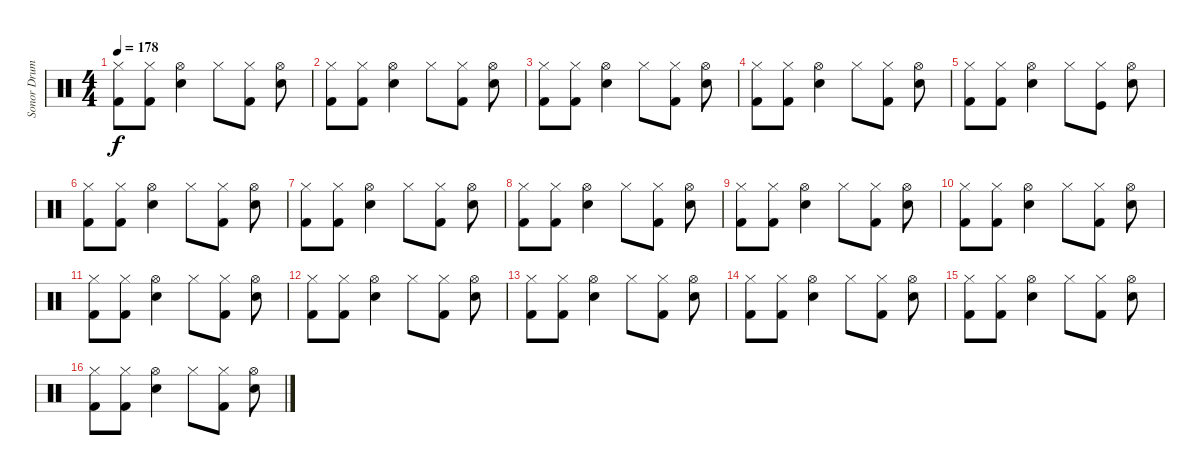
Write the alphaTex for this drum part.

\track ("Sonor Drum Kit " "Sonor Drum") {instrument percussion}
\staff {score}
\articulation defaults
\ts (4 4)
\tempo 178
\clef neutral
\ks c
("Hi-Hat (closed)" "Kick (hit) 2").8{dy f} ("Hi-Hat (closed)" "Kick (hit) 2").8 ("Hi-Hat (open)" "Electric Snare (hit)").4 "Hi-Hat (closed)".8 ("Hi-Hat (closed)" "Kick (hit) 2").8 ("Hi-Hat (open)" "Electric Snare (hit)").8 |
("Hi-Hat (closed)" "Kick (hit) 2").8 ("Hi-Hat (closed)" "Kick (hit) 2").8 ("Hi-Hat (open)" "Electric Snare (hit)").4 "Hi-Hat (closed)".8 ("Hi-Hat (closed)" "Kick (hit) 2").8 ("Hi-Hat (open)" "Electric Snare (hit)").8 |
("Hi-Hat (closed)" "Kick (hit) 2").8 ("Hi-Hat (closed)" "Kick (hit) 2").8 ("Hi-Hat (open)" "Electric Snare (hit)").4 "Hi-Hat (closed)".8 ("Hi-Hat (closed)" "Kick (hit) 2").8 ("Hi-Hat (open)" "Electric Snare (hit)").8 |
("Hi-Hat (closed)" "Kick (hit) 2").8 ("Hi-Hat (closed)" "Kick (hit) 2").8 ("Hi-Hat (open)" "Electric Snare (hit)").4 "Hi-Hat (closed)".8 ("Hi-Hat (closed)" "Kick (hit) 2").8 ("Hi-Hat (open)" "Electric Snare (hit)").8 |
("Hi-Hat (closed)" "Kick (hit) 2").8 ("Hi-Hat (closed)" "Kick (hit) 2").8 ("Hi-Hat (open)" "Electric Snare (hit)").4 "Hi-Hat (closed)".8 ("Hi-Hat (closed)" "Kick (hit)").8 ("Hi-Hat (open)" "Electric Snare (hit)").8 |
("Hi-Hat (closed)" "Kick (hit) 2").8 ("Hi-Hat (closed)" "Kick (hit) 2").8 ("Hi-Hat (open)" "Electric Snare (hit)").4 "Hi-Hat (closed)".8 ("Hi-Hat (closed)" "Kick (hit) 2").8 ("Hi-Hat (open)" "Electric Snare (hit)").8 |
("Hi-Hat (closed)" "Kick (hit) 2").8 ("Hi-Hat (closed)" "Kick (hit) 2").8 ("Hi-Hat (open)" "Electric Snare (hit)").4 "Hi-Hat (closed)".8 ("Hi-Hat (closed)" "Kick (hit) 2").8 ("Hi-Hat (open)" "Electric Snare (hit)").8 |
("Hi-Hat (closed)" "Kick (hit) 2").8 ("Hi-Hat (closed)" "Kick (hit) 2").8 ("Hi-Hat (open)" "Electric Snare (hit)").4 "Hi-Hat (closed)".8 ("Hi-Hat (closed)" "Kick (hit) 2").8 ("Hi-Hat (open)" "Electric Snare (hit)").8 |
("Hi-Hat (closed)" "Kick (hit) 2").8 ("Hi-Hat (closed)" "Kick (hit) 2").8 ("Hi-Hat (open)" "Electric Snare (hit)").4 "Hi-Hat (closed)".8 ("Hi-Hat (closed)" "Kick (hit) 2").8 ("Hi-Hat (open)" "Electric Snare (hit)").8 |
("Hi-Hat (closed)" "Kick (hit) 2").8 ("Hi-Hat (closed)" "Kick (hit) 2").8 ("Hi-Hat (open)" "Electric Snare (hit)").4 "Hi-Hat (closed)".8 ("Hi-Hat (closed)" "Kick (hit) 2").8 ("Hi-Hat (open)" "Electric Snare (hit)").8 |
("Hi-Hat (closed)" "Kick (hit) 2").8 ("Hi-Hat (closed)" "Kick (hit) 2").8 ("Hi-Hat (open)" "Electric Snare (hit)").4 "Hi-Hat (closed)".8 ("Hi-Hat (closed)" "Kick (hit) 2").8 ("Hi-Hat (open)" "Electric Snare (hit)").8 |
("Hi-Hat (closed)" "Kick (hit) 2").8 ("Hi-Hat (closed)" "Kick (hit) 2").8 ("Hi-Hat (open)" "Electric Snare (hit)").4 "Hi-Hat (closed)".8 ("Hi-Hat (closed)" "Kick (hit) 2").8 ("Hi-Hat (open)" "Electric Snare (hit)").8 |
("Hi-Hat (closed)" "Kick (hit) 2").8 ("Hi-Hat (closed)" "Kick (hit) 2").8 ("Hi-Hat (open)" "Electric Snare (hit)").4 "Hi-Hat (closed)".8 ("Hi-Hat (closed)" "Kick (hit) 2").8 ("Hi-Hat (open)" "Electric Snare (hit)").8 |
("Hi-Hat (closed)" "Kick (hit) 2").8 ("Hi-Hat (closed)" "Kick (hit) 2").8 ("Hi-Hat (open)" "Electric Snare (hit)").4 "Hi-Hat (closed)".8 ("Hi-Hat (closed)" "Kick (hit) 2").8 ("Hi-Hat (open)" "Electric Snare (hit)").8 |
("Hi-Hat (closed)" "Kick (hit) 2").8 ("Hi-Hat (closed)" "Kick (hit) 2").8 ("Hi-Hat (open)" "Electric Snare (hit)").4 "Hi-Hat (closed)".8 ("Hi-Hat (closed)" "Kick (hit) 2").8 ("Hi-Hat (open)" "Electric Snare (hit)").8 |
("Hi-Hat (closed)" "Kick (hit) 2").8 ("Hi-Hat (closed)" "Kick (hit) 2").8 ("Hi-Hat (open)" "Electric Snare (hit)").4 "Hi-Hat (closed)".8 ("Hi-Hat (closed)" "Kick (hit) 2").8 ("Hi-Hat (open)" "Electric Snare (hit)").8
